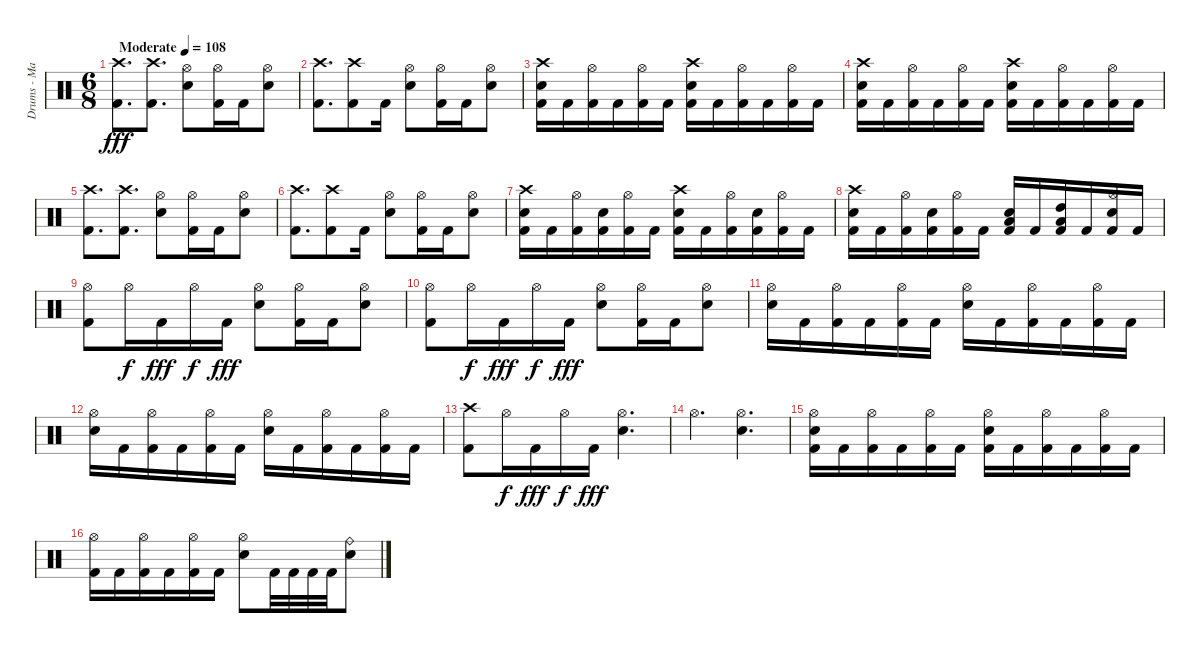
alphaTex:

\track ("Drums - Matt Traynor" "Drums - Ma") {instrument percussion}
\staff {score}
\articulation defaults
\ts (6 8)
\tempo (108 "Moderate")
\clef neutral
\ks c
("Crash high (hit)" "Kick (hit) 2").8{d dy fff} ("Crash high (hit)" "Kick (hit) 2").8{d} ("Hi-Hat (open)" "Snare (hit) 2").8 ("Hi-Hat (open)" "Kick (hit) 2").16 "Kick (hit) 2".16 ("Hi-Hat (open)" "Snare (hit) 2").8 |
("Crash high (hit)" "Kick (hit) 2").8{d} ("Crash high (hit)" "Kick (hit) 2").8 "Kick (hit) 2".16 ("Hi-Hat (open)" "Snare (hit) 2").8 ("Hi-Hat (open)" "Kick (hit) 2").16 "Kick (hit) 2".16 ("Hi-Hat (open)" "Snare (hit) 2").8 |
("Crash high (hit)" "Snare (hit) 2" "Kick (hit) 2").16 "Kick (hit) 2".16 ("Hi-Hat (open)" "Kick (hit) 2").16 "Kick (hit) 2".16 ("Hi-Hat (open)" "Kick (hit) 2").16 "Kick (hit) 2".16 ("Crash high (hit)" "Snare (hit) 2" "Kick (hit) 2").16 "Kick (hit) 2".16 ("Hi-Hat (open)" "Kick (hit) 2").16 "Kick (hit) 2".16 ("Hi-Hat (open)" "Kick (hit) 2").16 "Kick (hit) 2".16 |
("Crash high (hit)" "Snare (hit) 2" "Kick (hit) 2").16 "Kick (hit) 2".16 ("Hi-Hat (open)" "Kick (hit) 2").16 "Kick (hit) 2".16 ("Hi-Hat (open)" "Kick (hit) 2").16 "Kick (hit) 2".16 ("Crash high (hit)" "Snare (hit) 2" "Kick (hit) 2").16 "Kick (hit) 2".16 ("Hi-Hat (open)" "Kick (hit) 2").16 "Kick (hit) 2".16 ("Hi-Hat (open)" "Kick (hit) 2").16 "Kick (hit) 2".16 |
("Crash high (hit)" "Kick (hit) 2").8{d} ("Crash high (hit)" "Kick (hit) 2").8{d} ("Hi-Hat (open)" "Snare (hit) 2").8 ("Hi-Hat (open)" "Kick (hit) 2").16 "Kick (hit) 2".16 ("Hi-Hat (open)" "Snare (hit) 2").8 |
("Crash high (hit)" "Kick (hit) 2").8{d} ("Crash high (hit)" "Kick (hit) 2").8 "Kick (hit) 2".16 ("Hi-Hat (open)" "Snare (hit) 2").8 ("Hi-Hat (open)" "Kick (hit) 2").16 "Kick (hit) 2".16 ("Hi-Hat (open)" "Snare (hit) 2").8 |
("Crash high (hit)" "Snare (hit) 2" "Kick (hit) 2").16 "Kick (hit) 2".16 ("Hi-Hat (open)" "Kick (hit) 2").16 ("Snare (hit) 2" "Kick (hit) 2").16 ("Hi-Hat (open)" "Kick (hit) 2").16 "Kick (hit) 2".16 ("Crash high (hit)" "Snare (hit) 2" "Kick (hit) 2").16 "Kick (hit) 2".16 ("Hi-Hat (open)" "Kick (hit) 2").16 ("Snare (hit) 2" "Kick (hit) 2").16 ("Hi-Hat (open)" "Kick (hit) 2").16 "Kick (hit) 2".16 |
("Crash high (hit)" "Snare (hit) 2" "Kick (hit) 2").16 "Kick (hit) 2".16 ("Hi-Hat (open)" "Kick (hit) 2").16 ("Snare (hit) 2" "Kick (hit) 2").16 ("Hi-Hat (open)" "Kick (hit) 2").16 "Kick (hit) 2".16 ("Snare (hit) 2" "Low Tom (hit)" "Kick (hit) 2").16 "Kick (hit) 2".16 ("High Tom (hit)" "Low Tom (hit)" "Kick (hit) 2").16 "Kick (hit) 2".16 ("Hi-Hat (open)" "Snare (hit) 2" "Kick (hit) 2").16 "Kick (hit) 2".16 |
("Hi-Hat (open)" "Kick (hit) 2").8 "Hi-Hat (open)".16{dy f} "Kick (hit) 2".16{dy fff} "Hi-Hat (open)".16{dy f} "Kick (hit) 2".16{dy fff} ("Hi-Hat (open)" "Snare (hit) 2").8 ("Hi-Hat (open)" "Kick (hit) 2").16 "Kick (hit) 2".16 ("Hi-Hat (open)" "Snare (hit) 2").8 |
("Hi-Hat (open)" "Kick (hit) 2").8 "Hi-Hat (open)".16{dy f} "Kick (hit) 2".16{dy fff} "Hi-Hat (open)".16{dy f} "Kick (hit) 2".16{dy fff} ("Hi-Hat (open)" "Snare (hit) 2").8 ("Hi-Hat (open)" "Kick (hit) 2").16 "Kick (hit) 2".16 ("Hi-Hat (open)" "Snare (hit) 2").8 |
("Hi-Hat (open)" "Snare (hit) 2").16 "Kick (hit) 2".16 ("Hi-Hat (open)" "Kick (hit) 2").16 "Kick (hit) 2".16 ("Hi-Hat (open)" "Kick (hit) 2").16 "Kick (hit) 2".16 ("Hi-Hat (open)" "Snare (hit) 2").16 "Kick (hit) 2".16 ("Hi-Hat (open)" "Kick (hit) 2").16 "Kick (hit) 2".16 ("Hi-Hat (open)" "Kick (hit) 2").16 "Kick (hit) 2".16 |
("Hi-Hat (open)" "Snare (hit) 2").16 "Kick (hit) 2".16 ("Hi-Hat (open)" "Kick (hit) 2").16 "Kick (hit) 2".16 ("Hi-Hat (open)" "Kick (hit) 2").16 "Kick (hit) 2".16 ("Hi-Hat (open)" "Snare (hit) 2").16 "Kick (hit) 2".16 ("Hi-Hat (open)" "Kick (hit) 2").16 "Kick (hit) 2".16 ("Hi-Hat (open)" "Kick (hit) 2").16 "Kick (hit) 2".16 |
("Crash high (hit)" "Kick (hit) 2").8 "Hi-Hat (open)".16{dy f} "Kick (hit) 2".16{dy fff} "Hi-Hat (open)".16{dy f} "Kick (hit) 2".16{dy fff} ("Hi-Hat (open)" "Snare (hit) 2").4{d} |
"Hi-Hat (open)".4{d} ("Hi-Hat (open)" "Snare (hit) 2").4{d} |
("Hi-Hat (open)" "Snare (hit) 2" "Kick (hit) 2").16 "Kick (hit) 2".16 ("Hi-Hat (open)" "Kick (hit) 2").16 "Kick (hit) 2".16 ("Hi-Hat (open)" "Kick (hit) 2").16 "Kick (hit) 2".16 ("Hi-Hat (open)" "Snare (hit) 2" "Kick (hit) 2").16 "Kick (hit) 2".16 ("Hi-Hat (open)" "Kick (hit) 2").16 "Kick (hit) 2".16 ("Hi-Hat (open)" "Kick (hit) 2").16 "Kick (hit) 2".16 |
("Hi-Hat (open)" "Kick (hit) 2").16 "Kick (hit) 2".16 ("Hi-Hat (open)" "Kick (hit) 2").16 "Kick (hit) 2".16 ("Hi-Hat (open)" "Kick (hit) 2").16 "Kick (hit) 2".16 ("Hi-Hat (open)" "Snare (hit) 2").8 "Kick (hit) 2".32 "Kick (hit) 2".32 "Kick (hit) 2".32 "Kick (hit) 2".32 ("Ride (bell)" "Snare (hit) 2").8
